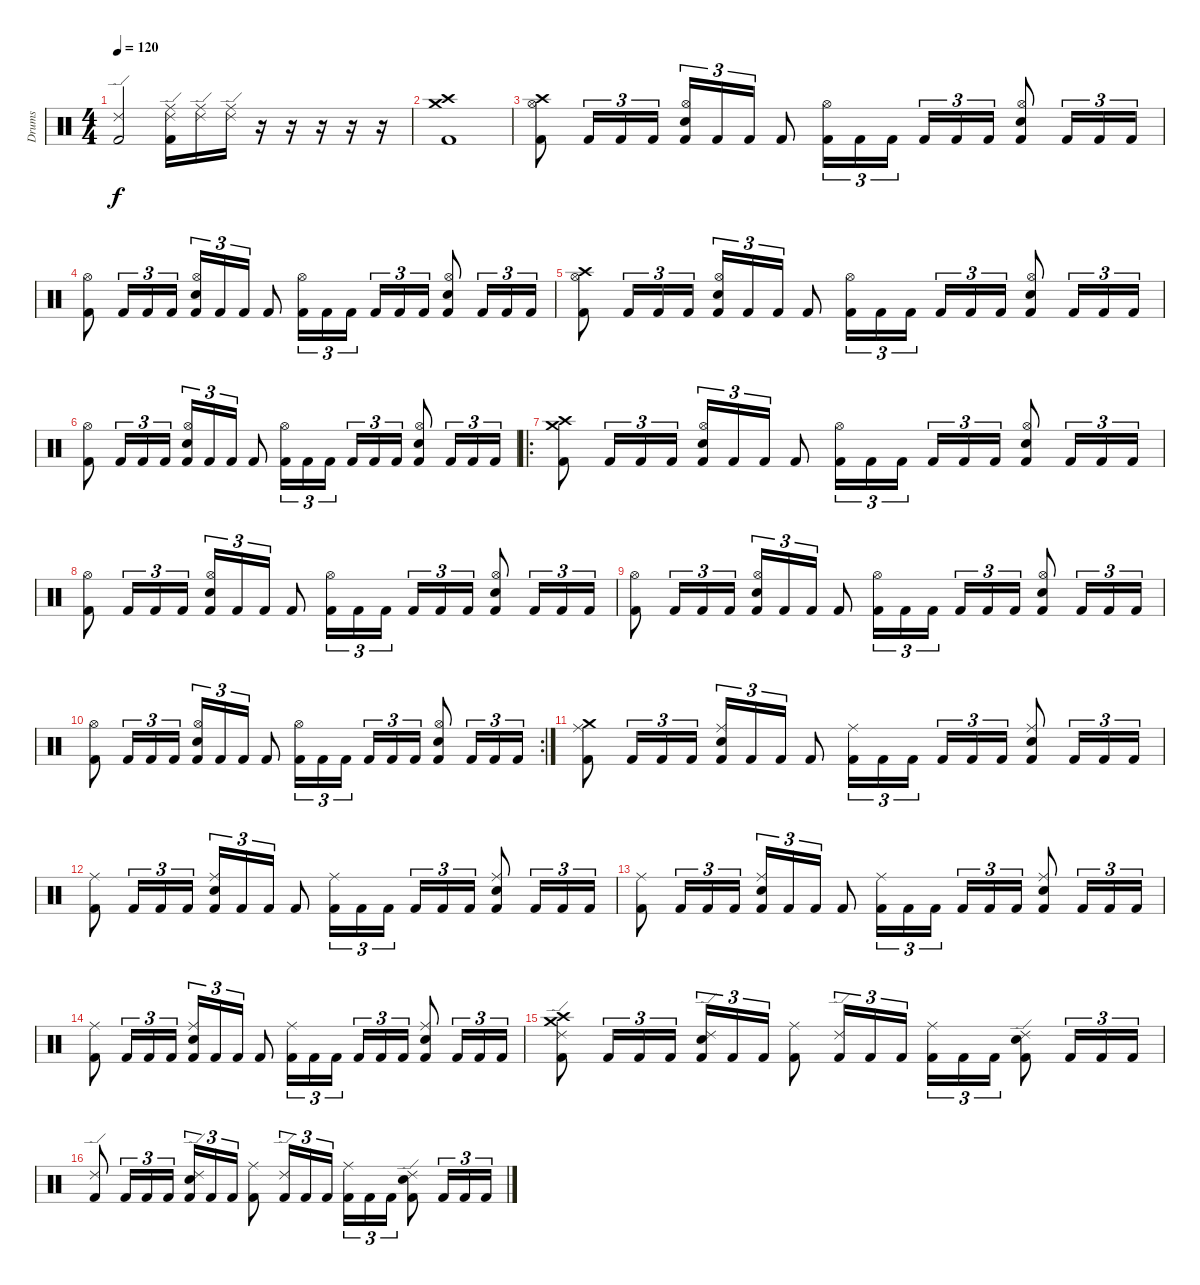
\track ("Drums" "Drums") {instrument percussion}
\staff {score}
\articulation defaults
\ts (4 4)
\tempo 120
\clef neutral
\ks c
("Ride (edge) 2" "Kick (hit) 2").2{dy f} ("Ride (middle)" "Ride (edge) 2" "Kick (hit) 2").16 ("Ride (middle)" "Ride (edge) 2").16 ("Ride (middle)" "Ride (edge) 2").16 r.16 r.16 r.16 r.16 r.16 |
("Crash medium (hit)" "Crash high (hit)" "Kick (hit) 2").1 |
("Crash high (hit)" "Hi-Hat (open)" "Kick (hit) 2").8 "Kick (hit) 2".16{tu (3 2)} "Kick (hit) 2".16{tu (3 2)} "Kick (hit) 2".16{tu (3 2)} ("Hi-Hat (open)" "Electric Snare (hit)" "Kick (hit) 2").16{tu (3 2)} "Kick (hit) 2".16{tu (3 2)} "Kick (hit) 2".16{tu (3 2)} "Kick (hit) 2".8 ("Hi-Hat (open)" "Kick (hit) 2").16{tu (3 2)} "Kick (hit) 2".16{tu (3 2)} "Kick (hit) 2".16{tu (3 2)} "Kick (hit) 2".16{tu (3 2)} "Kick (hit) 2".16{tu (3 2)} "Kick (hit) 2".16{tu (3 2)} ("Hi-Hat (open)" "Electric Snare (hit)" "Kick (hit) 2").8 "Kick (hit) 2".16{tu (3 2)} "Kick (hit) 2".16{tu (3 2)} "Kick (hit) 2".16{tu (3 2)} |
("Hi-Hat (open)" "Kick (hit) 2").8 "Kick (hit) 2".16{tu (3 2)} "Kick (hit) 2".16{tu (3 2)} "Kick (hit) 2".16{tu (3 2)} ("Hi-Hat (open)" "Electric Snare (hit)" "Kick (hit) 2").16{tu (3 2)} "Kick (hit) 2".16{tu (3 2)} "Kick (hit) 2".16{tu (3 2)} "Kick (hit) 2".8 ("Hi-Hat (open)" "Kick (hit) 2").16{tu (3 2)} "Kick (hit) 2".16{tu (3 2)} "Kick (hit) 2".16{tu (3 2)} "Kick (hit) 2".16{tu (3 2)} "Kick (hit) 2".16{tu (3 2)} "Kick (hit) 2".16{tu (3 2)} ("Hi-Hat (open)" "Electric Snare (hit)" "Kick (hit) 2").8 "Kick (hit) 2".16{tu (3 2)} "Kick (hit) 2".16{tu (3 2)} "Kick (hit) 2".16{tu (3 2)} |
("Crash high (hit)" "Hi-Hat (open)" "Kick (hit) 2").8 "Kick (hit) 2".16{tu (3 2)} "Kick (hit) 2".16{tu (3 2)} "Kick (hit) 2".16{tu (3 2)} ("Hi-Hat (open)" "Electric Snare (hit)" "Kick (hit) 2").16{tu (3 2)} "Kick (hit) 2".16{tu (3 2)} "Kick (hit) 2".16{tu (3 2)} "Kick (hit) 2".8 ("Hi-Hat (open)" "Kick (hit) 2").16{tu (3 2)} "Kick (hit) 2".16{tu (3 2)} "Kick (hit) 2".16{tu (3 2)} "Kick (hit) 2".16{tu (3 2)} "Kick (hit) 2".16{tu (3 2)} "Kick (hit) 2".16{tu (3 2)} ("Hi-Hat (open)" "Electric Snare (hit)" "Kick (hit) 2").8 "Kick (hit) 2".16{tu (3 2)} "Kick (hit) 2".16{tu (3 2)} "Kick (hit) 2".16{tu (3 2)} |
("Hi-Hat (open)" "Kick (hit) 2").8 "Kick (hit) 2".16{tu (3 2)} "Kick (hit) 2".16{tu (3 2)} "Kick (hit) 2".16{tu (3 2)} ("Hi-Hat (open)" "Electric Snare (hit)" "Kick (hit) 2").16{tu (3 2)} "Kick (hit) 2".16{tu (3 2)} "Kick (hit) 2".16{tu (3 2)} "Kick (hit) 2".8 ("Hi-Hat (open)" "Kick (hit) 2").16{tu (3 2)} "Kick (hit) 2".16{tu (3 2)} "Kick (hit) 2".16{tu (3 2)} "Kick (hit) 2".16{tu (3 2)} "Kick (hit) 2".16{tu (3 2)} "Kick (hit) 2".16{tu (3 2)} ("Hi-Hat (open)" "Electric Snare (hit)" "Kick (hit) 2").8 "Kick (hit) 2".16{tu (3 2)} "Kick (hit) 2".16{tu (3 2)} "Kick (hit) 2".16{tu (3 2)} |
\ro
("Crash medium (hit)" "Crash high (hit)" "Kick (hit) 2").8 "Kick (hit) 2".16{tu (3 2)} "Kick (hit) 2".16{tu (3 2)} "Kick (hit) 2".16{tu (3 2)} ("Hi-Hat (open)" "Electric Snare (hit)" "Kick (hit) 2").16{tu (3 2)} "Kick (hit) 2".16{tu (3 2)} "Kick (hit) 2".16{tu (3 2)} "Kick (hit) 2".8 ("Hi-Hat (open)" "Kick (hit) 2").16{tu (3 2)} "Kick (hit) 2".16{tu (3 2)} "Kick (hit) 2".16{tu (3 2)} "Kick (hit) 2".16{tu (3 2)} "Kick (hit) 2".16{tu (3 2)} "Kick (hit) 2".16{tu (3 2)} ("Hi-Hat (open)" "Electric Snare (hit)" "Kick (hit) 2").8 "Kick (hit) 2".16{tu (3 2)} "Kick (hit) 2".16{tu (3 2)} "Kick (hit) 2".16{tu (3 2)} |
("Hi-Hat (open)" "Kick (hit) 2").8 "Kick (hit) 2".16{tu (3 2)} "Kick (hit) 2".16{tu (3 2)} "Kick (hit) 2".16{tu (3 2)} ("Hi-Hat (open)" "Electric Snare (hit)" "Kick (hit) 2").16{tu (3 2)} "Kick (hit) 2".16{tu (3 2)} "Kick (hit) 2".16{tu (3 2)} "Kick (hit) 2".8 ("Hi-Hat (open)" "Kick (hit) 2").16{tu (3 2)} "Kick (hit) 2".16{tu (3 2)} "Kick (hit) 2".16{tu (3 2)} "Kick (hit) 2".16{tu (3 2)} "Kick (hit) 2".16{tu (3 2)} "Kick (hit) 2".16{tu (3 2)} ("Hi-Hat (open)" "Electric Snare (hit)" "Kick (hit) 2").8 "Kick (hit) 2".16{tu (3 2)} "Kick (hit) 2".16{tu (3 2)} "Kick (hit) 2".16{tu (3 2)} |
("Hi-Hat (open)" "Kick (hit) 2").8 "Kick (hit) 2".16{tu (3 2)} "Kick (hit) 2".16{tu (3 2)} "Kick (hit) 2".16{tu (3 2)} ("Hi-Hat (open)" "Electric Snare (hit)" "Kick (hit) 2").16{tu (3 2)} "Kick (hit) 2".16{tu (3 2)} "Kick (hit) 2".16{tu (3 2)} "Kick (hit) 2".8 ("Hi-Hat (open)" "Kick (hit) 2").16{tu (3 2)} "Kick (hit) 2".16{tu (3 2)} "Kick (hit) 2".16{tu (3 2)} "Kick (hit) 2".16{tu (3 2)} "Kick (hit) 2".16{tu (3 2)} "Kick (hit) 2".16{tu (3 2)} ("Hi-Hat (open)" "Electric Snare (hit)" "Kick (hit) 2").8 "Kick (hit) 2".16{tu (3 2)} "Kick (hit) 2".16{tu (3 2)} "Kick (hit) 2".16{tu (3 2)} |
\rc 2
("Hi-Hat (open)" "Kick (hit) 2").8 "Kick (hit) 2".16{tu (3 2)} "Kick (hit) 2".16{tu (3 2)} "Kick (hit) 2".16{tu (3 2)} ("Hi-Hat (open)" "Electric Snare (hit)" "Kick (hit) 2").16{tu (3 2)} "Kick (hit) 2".16{tu (3 2)} "Kick (hit) 2".16{tu (3 2)} "Kick (hit) 2".8 ("Hi-Hat (open)" "Kick (hit) 2").16{tu (3 2)} "Kick (hit) 2".16{tu (3 2)} "Kick (hit) 2".16{tu (3 2)} "Kick (hit) 2".16{tu (3 2)} "Kick (hit) 2".16{tu (3 2)} "Kick (hit) 2".16{tu (3 2)} ("Hi-Hat (open)" "Electric Snare (hit)" "Kick (hit) 2").8 "Kick (hit) 2".16{tu (3 2)} "Kick (hit) 2".16{tu (3 2)} "Kick (hit) 2".16{tu (3 2)} |
("Crash medium (hit)" "Ride (middle)" "Kick (hit) 2").8 "Kick (hit) 2".16{tu (3 2)} "Kick (hit) 2".16{tu (3 2)} "Kick (hit) 2".16{tu (3 2)} ("Ride (middle)" "Electric Snare (hit)" "Kick (hit) 2").16{tu (3 2)} "Kick (hit) 2".16{tu (3 2)} "Kick (hit) 2".16{tu (3 2)} "Kick (hit) 2".8 ("Ride (middle)" "Kick (hit) 2").16{tu (3 2)} "Kick (hit) 2".16{tu (3 2)} "Kick (hit) 2".16{tu (3 2)} "Kick (hit) 2".16{tu (3 2)} "Kick (hit) 2".16{tu (3 2)} "Kick (hit) 2".16{tu (3 2)} ("Ride (middle)" "Electric Snare (hit)" "Kick (hit) 2").8 "Kick (hit) 2".16{tu (3 2)} "Kick (hit) 2".16{tu (3 2)} "Kick (hit) 2".16{tu (3 2)} |
("Ride (middle)" "Kick (hit) 2").8 "Kick (hit) 2".16{tu (3 2)} "Kick (hit) 2".16{tu (3 2)} "Kick (hit) 2".16{tu (3 2)} ("Ride (middle)" "Electric Snare (hit)" "Kick (hit) 2").16{tu (3 2)} "Kick (hit) 2".16{tu (3 2)} "Kick (hit) 2".16{tu (3 2)} "Kick (hit) 2".8 ("Ride (middle)" "Kick (hit) 2").16{tu (3 2)} "Kick (hit) 2".16{tu (3 2)} "Kick (hit) 2".16{tu (3 2)} "Kick (hit) 2".16{tu (3 2)} "Kick (hit) 2".16{tu (3 2)} "Kick (hit) 2".16{tu (3 2)} ("Ride (middle)" "Electric Snare (hit)" "Kick (hit) 2").8 "Kick (hit) 2".16{tu (3 2)} "Kick (hit) 2".16{tu (3 2)} "Kick (hit) 2".16{tu (3 2)} |
("Ride (middle)" "Kick (hit) 2").8 "Kick (hit) 2".16{tu (3 2)} "Kick (hit) 2".16{tu (3 2)} "Kick (hit) 2".16{tu (3 2)} ("Ride (middle)" "Electric Snare (hit)" "Kick (hit) 2").16{tu (3 2)} "Kick (hit) 2".16{tu (3 2)} "Kick (hit) 2".16{tu (3 2)} "Kick (hit) 2".8 ("Ride (middle)" "Kick (hit) 2").16{tu (3 2)} "Kick (hit) 2".16{tu (3 2)} "Kick (hit) 2".16{tu (3 2)} "Kick (hit) 2".16{tu (3 2)} "Kick (hit) 2".16{tu (3 2)} "Kick (hit) 2".16{tu (3 2)} ("Ride (middle)" "Electric Snare (hit)" "Kick (hit) 2").8 "Kick (hit) 2".16{tu (3 2)} "Kick (hit) 2".16{tu (3 2)} "Kick (hit) 2".16{tu (3 2)} |
("Ride (middle)" "Kick (hit) 2").8 "Kick (hit) 2".16{tu (3 2)} "Kick (hit) 2".16{tu (3 2)} "Kick (hit) 2".16{tu (3 2)} ("Ride (middle)" "Electric Snare (hit)" "Kick (hit) 2").16{tu (3 2)} "Kick (hit) 2".16{tu (3 2)} "Kick (hit) 2".16{tu (3 2)} "Kick (hit) 2".8 ("Ride (middle)" "Kick (hit) 2").16{tu (3 2)} "Kick (hit) 2".16{tu (3 2)} "Kick (hit) 2".16{tu (3 2)} "Kick (hit) 2".16{tu (3 2)} "Kick (hit) 2".16{tu (3 2)} "Kick (hit) 2".16{tu (3 2)} ("Ride (middle)" "Electric Snare (hit)" "Kick (hit) 2").8 "Kick (hit) 2".16{tu (3 2)} "Kick (hit) 2".16{tu (3 2)} "Kick (hit) 2".16{tu (3 2)} |
("Crash high (hit)" "Crash medium (hit)" "Ride (edge) 2" "Kick (hit) 2").8 "Kick (hit) 2".16{tu (3 2)} "Kick (hit) 2".16{tu (3 2)} "Kick (hit) 2".16{tu (3 2)} ("Ride (edge) 2" "Electric Snare (hit)" "Kick (hit) 2").16{tu (3 2)} "Kick (hit) 2".16{tu (3 2)} "Kick (hit) 2".16{tu (3 2)} ("Ride (middle)" "Kick (hit) 2").8 ("Ride (edge) 2" "Kick (hit) 2").16{tu (3 2)} "Kick (hit) 2".16{tu (3 2)} "Kick (hit) 2".16{tu (3 2)} ("Ride (middle)" "Kick (hit) 2").16{tu (3 2)} "Kick (hit) 2".16{tu (3 2)} "Kick (hit) 2".16{tu (3 2)} ("Ride (edge) 2" "Electric Snare (hit)" "Kick (hit) 2").8 "Kick (hit) 2".16{tu (3 2)} "Kick (hit) 2".16{tu (3 2)} "Kick (hit) 2".16{tu (3 2)} |
("Ride (edge) 2" "Kick (hit) 2").8 "Kick (hit) 2".16{tu (3 2)} "Kick (hit) 2".16{tu (3 2)} "Kick (hit) 2".16{tu (3 2)} ("Ride (edge) 2" "Electric Snare (hit)" "Kick (hit) 2").16{tu (3 2)} "Kick (hit) 2".16{tu (3 2)} "Kick (hit) 2".16{tu (3 2)} ("Ride (middle)" "Kick (hit) 2").8 ("Ride (edge) 2" "Kick (hit) 2").16{tu (3 2)} "Kick (hit) 2".16{tu (3 2)} "Kick (hit) 2".16{tu (3 2)} ("Ride (middle)" "Kick (hit) 2").16{tu (3 2)} "Kick (hit) 2".16{tu (3 2)} "Kick (hit) 2".16{tu (3 2)} ("Ride (edge) 2" "Electric Snare (hit)" "Kick (hit) 2").8 "Kick (hit) 2".16{tu (3 2)} "Kick (hit) 2".16{tu (3 2)} "Kick (hit) 2".16{tu (3 2)}
